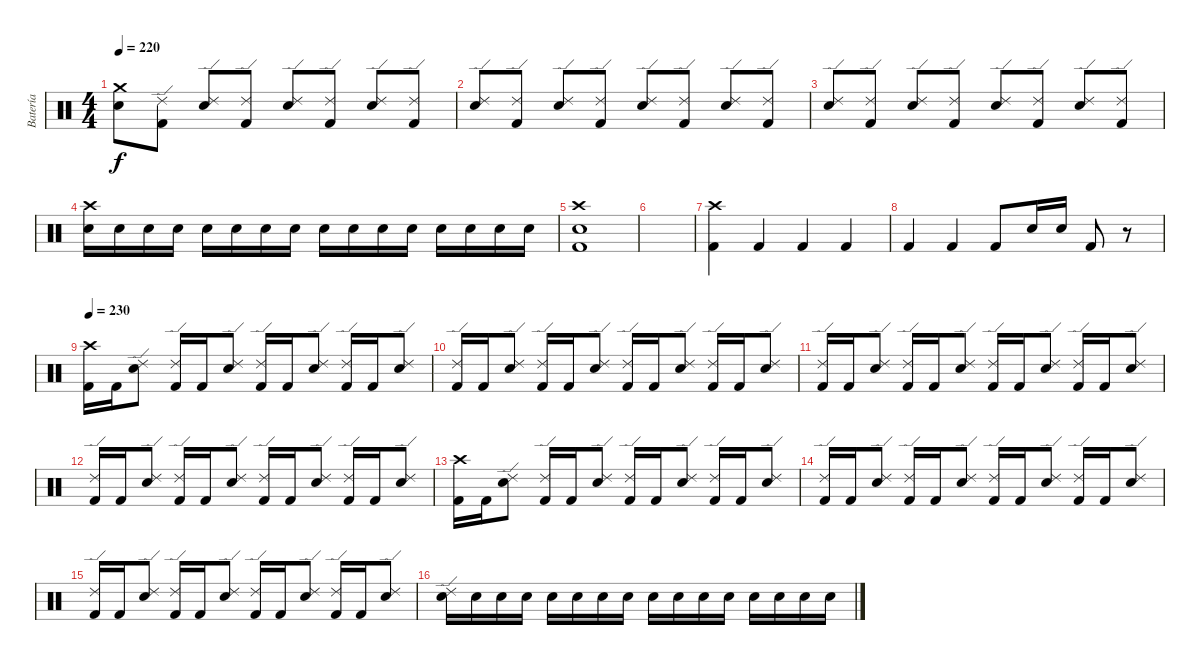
\track ("Batería" "Batería") {instrument percussion}
\staff {score}
\articulation defaults
\ts (4 4)
\tempo 220
\clef neutral
\ks c
("Crash medium (hit)" "Snare (hit) 2").8{dy f} ("Ride (edge) 2" "Kick (hit) 2").8 ("Ride (edge) 2" "Snare (hit) 2").8 ("Ride (edge) 2" "Kick (hit) 2").8 ("Ride (edge) 2" "Snare (hit) 2").8 ("Ride (edge) 2" "Kick (hit) 2").8 ("Ride (edge) 2" "Snare (hit) 2").8 ("Ride (edge) 2" "Kick (hit) 2").8 |
("Ride (edge) 2" "Snare (hit) 2").8 ("Ride (edge) 2" "Kick (hit) 2").8 ("Ride (edge) 2" "Snare (hit) 2").8 ("Ride (edge) 2" "Kick (hit) 2").8 ("Ride (edge) 2" "Snare (hit) 2").8 ("Ride (edge) 2" "Kick (hit) 2").8 ("Ride (edge) 2" "Snare (hit) 2").8 ("Ride (edge) 2" "Kick (hit) 2").8 |
("Ride (edge) 2" "Snare (hit) 2").8 ("Ride (edge) 2" "Kick (hit) 2").8 ("Ride (edge) 2" "Snare (hit) 2").8 ("Ride (edge) 2" "Kick (hit) 2").8 ("Ride (edge) 2" "Snare (hit) 2").8 ("Ride (edge) 2" "Kick (hit) 2").8 ("Ride (edge) 2" "Snare (hit) 2").8 ("Ride (edge) 2" "Kick (hit) 2").8 |
("Crash high (hit)" "Snare (hit) 2").16 "Snare (hit) 2".16 "Snare (hit) 2".16 "Snare (hit) 2".16 "Snare (hit) 2".16 "Snare (hit) 2".16 "Snare (hit) 2".16 "Snare (hit) 2".16 "Snare (hit) 2".16 "Snare (hit) 2".16 "Snare (hit) 2".16 "Snare (hit) 2".16 "Snare (hit) 2".16 "Snare (hit) 2".16 "Snare (hit) 2".16 "Snare (hit) 2".16 |
("Crash high (hit)" "Snare (hit) 2" "Kick (hit) 2").1 |
|
("Crash high (hit)" "Kick (hit) 2").4 "Kick (hit) 2".4 "Kick (hit) 2".4 "Kick (hit) 2".4 |
"Kick (hit) 2".4 "Kick (hit) 2".4 "Kick (hit) 2".8 "Snare (hit) 2".16 "Snare (hit) 2".16 "Kick (hit) 2".8 r.8 |
\tempo 230
("Crash high (hit)" "Kick (hit) 2").16 "Kick (hit) 2".16 ("Ride (edge) 2" "Snare (hit) 2").8 ("Ride (edge) 2" "Kick (hit) 2").16 "Kick (hit) 2".16 ("Ride (edge) 2" "Snare (hit) 2").8 ("Ride (edge) 2" "Kick (hit) 2").16 "Kick (hit) 2".16 ("Ride (edge) 2" "Snare (hit) 2").8 ("Ride (edge) 2" "Kick (hit) 2").16 "Kick (hit) 2".16 ("Ride (edge) 2" "Snare (hit) 2").8 |
("Ride (edge) 2" "Kick (hit) 2").16 "Kick (hit) 2".16 ("Ride (edge) 2" "Snare (hit) 2").8 ("Ride (edge) 2" "Kick (hit) 2").16 "Kick (hit) 2".16 ("Ride (edge) 2" "Snare (hit) 2").8 ("Ride (edge) 2" "Kick (hit) 2").16 "Kick (hit) 2".16 ("Ride (edge) 2" "Snare (hit) 2").8 ("Ride (edge) 2" "Kick (hit) 2").16 "Kick (hit) 2".16 ("Ride (edge) 2" "Snare (hit) 2").8 |
("Ride (edge) 2" "Kick (hit) 2").16 "Kick (hit) 2".16 ("Ride (edge) 2" "Snare (hit) 2").8 ("Ride (edge) 2" "Kick (hit) 2").16 "Kick (hit) 2".16 ("Ride (edge) 2" "Snare (hit) 2").8 ("Ride (edge) 2" "Kick (hit) 2").16 "Kick (hit) 2".16 ("Ride (edge) 2" "Snare (hit) 2").8 ("Ride (edge) 2" "Kick (hit) 2").16 "Kick (hit) 2".16 ("Ride (edge) 2" "Snare (hit) 2").8 |
("Ride (edge) 2" "Kick (hit) 2").16 "Kick (hit) 2".16 ("Ride (edge) 2" "Snare (hit) 2").8 ("Ride (edge) 2" "Kick (hit) 2").16 "Kick (hit) 2".16 ("Ride (edge) 2" "Snare (hit) 2").8 ("Ride (edge) 2" "Kick (hit) 2").16 "Kick (hit) 2".16 ("Ride (edge) 2" "Snare (hit) 2").8 ("Ride (edge) 2" "Kick (hit) 2").16 "Kick (hit) 2".16 ("Ride (edge) 2" "Snare (hit) 2").8 |
("Crash high (hit)" "Kick (hit) 2").16 "Kick (hit) 2".16 ("Ride (edge) 2" "Snare (hit) 2").8 ("Ride (edge) 2" "Kick (hit) 2").16 "Kick (hit) 2".16 ("Ride (edge) 2" "Snare (hit) 2").8 ("Ride (edge) 2" "Kick (hit) 2").16 "Kick (hit) 2".16 ("Ride (edge) 2" "Snare (hit) 2").8 ("Ride (edge) 2" "Kick (hit) 2").16 "Kick (hit) 2".16 ("Ride (edge) 2" "Snare (hit) 2").8 |
("Ride (edge) 2" "Kick (hit) 2").16 "Kick (hit) 2".16 ("Ride (edge) 2" "Snare (hit) 2").8 ("Ride (edge) 2" "Kick (hit) 2").16 "Kick (hit) 2".16 ("Ride (edge) 2" "Snare (hit) 2").8 ("Ride (edge) 2" "Kick (hit) 2").16 "Kick (hit) 2".16 ("Ride (edge) 2" "Snare (hit) 2").8 ("Ride (edge) 2" "Kick (hit) 2").16 "Kick (hit) 2".16 ("Ride (edge) 2" "Snare (hit) 2").8 |
("Ride (edge) 2" "Kick (hit) 2").16 "Kick (hit) 2".16 ("Ride (edge) 2" "Snare (hit) 2").8 ("Ride (edge) 2" "Kick (hit) 2").16 "Kick (hit) 2".16 ("Ride (edge) 2" "Snare (hit) 2").8 ("Ride (edge) 2" "Kick (hit) 2").16 "Kick (hit) 2".16 ("Ride (edge) 2" "Snare (hit) 2").8 ("Ride (edge) 2" "Kick (hit) 2").16 "Kick (hit) 2".16 ("Ride (edge) 2" "Snare (hit) 2").8 |
("Ride (edge) 2" "Snare (hit) 2").16 "Snare (hit) 2".16 "Snare (hit) 2".16 "Snare (hit) 2".16 "Snare (hit) 2".16 "Snare (hit) 2".16 "Snare (hit) 2".16 "Snare (hit) 2".16 "Snare (hit) 2".16 "Snare (hit) 2".16 "Snare (hit) 2".16 "Snare (hit) 2".16 "Snare (hit) 2".16 "Snare (hit) 2".16 "Snare (hit) 2".16 "Snare (hit) 2".16
